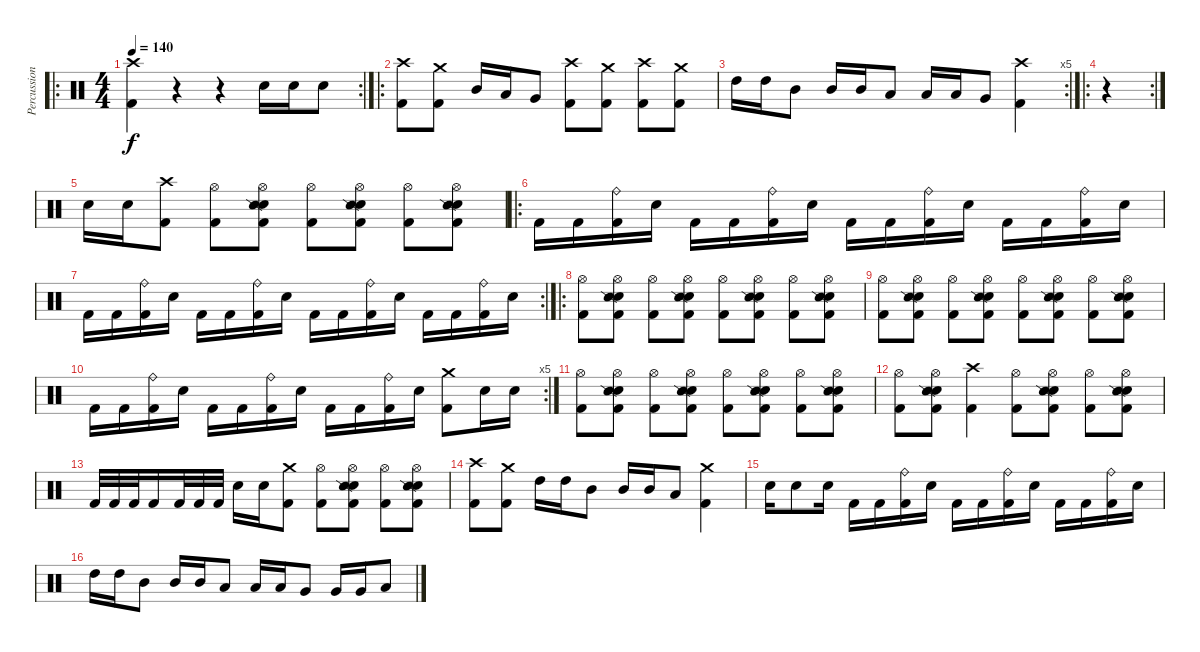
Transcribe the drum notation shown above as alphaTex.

\track ("Percussion" "Percussion") {instrument percussion}
\staff {score}
\articulation defaults
\ro
\rc 2
\ts (4 4)
\tempo 140
\clef neutral
\ks c
("Crash high (hit)" "Kick (hit) 2").4{dy f} r.4 r.4 "Electric Snare (hit)".16 "Electric Snare (hit)".16 "Electric Snare (hit)".8 |
\ro
("Crash high (hit)" "Kick (hit) 2").8 ("Crash medium (hit)" "Kick (hit) 2").8 "Mid Tom (hit)".16 "Low Tom (hit)".16 "Very Low Tom (hit)".8 ("Crash high (hit)" "Kick (hit) 2").8 ("Crash medium (hit)" "Kick (hit) 2").8 ("Crash high (hit)" "Kick (hit) 2").8 ("Crash medium (hit)" "Kick (hit) 2").8 |
\rc 5 "High Tom (hit)".16 "High Tom (hit)".16 "Mid Tom (hit)".8 "Mid Tom (hit)".16 "Mid Tom (hit)".16 "Low Tom (hit)".8 "Low Tom (hit)".16 "Low Tom (hit)".16 "Very Low Tom (hit)".8
("Crash high (hit)" "Kick (hit) 2").4 |
\ro
\rc 2
r.4 |
"Electric Snare (hit)".16 "Electric Snare (hit)".16 ("Crash high (hit)" "Kick (hit) 2").8 ("Hi-Hat (open)" "Kick (hit) 2").8 ("Hi-Hat (open)" "Electric Snare (hit)" "Snare (side stick) 2" "Kick (hit) 2").8 ("Hi-Hat (open)" "Kick (hit) 2").8 ("Hi-Hat (open)" "Electric Snare (hit)" "Snare (side stick) 2" "Kick (hit) 2").8 ("Hi-Hat (open)" "Kick (hit) 2").8 ("Hi-Hat (open)" "Electric Snare (hit)" "Snare (side stick) 2" "Kick (hit) 2").8 |
\ro "Kick (hit) 2".16 "Kick (hit) 2".16
("Ride (bell)" "Kick (hit) 2").16 "Electric Snare (hit)".16 "Kick (hit) 2".16 "Kick (hit) 2".16 ("Ride (bell)" "Kick (hit) 2").16 "Electric Snare (hit)".16 "Kick (hit) 2".16 "Kick (hit) 2".16 ("Ride (bell)" "Kick (hit) 2").16 "Electric Snare (hit)".16 "Kick (hit) 2".16 "Kick (hit) 2".16 ("Ride (bell)" "Kick (hit) 2").16 "Electric Snare (hit)".16 |
\rc 2 "Kick (hit) 2".16 "Kick (hit) 2".16
("Ride (bell)" "Kick (hit) 2").16 "Electric Snare (hit)".16 "Kick (hit) 2".16 "Kick (hit) 2".16 ("Ride (bell)" "Kick (hit) 2").16 "Electric Snare (hit)".16 "Kick (hit) 2".16 "Kick (hit) 2".16 ("Ride (bell)" "Kick (hit) 2").16 "Electric Snare (hit)".16 "Kick (hit) 2".16 "Kick (hit) 2".16 ("Ride (bell)" "Kick (hit) 2").16 "Electric Snare (hit)".16 |
\ro
("Hi-Hat (open)" "Kick (hit) 2").8 ("Hi-Hat (open)" "Electric Snare (hit)" "Snare (side stick) 2" "Kick (hit) 2").8 ("Hi-Hat (open)" "Kick (hit) 2").8 ("Hi-Hat (open)" "Electric Snare (hit)" "Snare (side stick) 2" "Kick (hit) 2").8 ("Hi-Hat (open)" "Kick (hit) 2").8 ("Hi-Hat (open)" "Electric Snare (hit)" "Snare (side stick) 2" "Kick (hit) 2").8 ("Hi-Hat (open)" "Kick (hit) 2").8 ("Hi-Hat (open)" "Electric Snare (hit)" "Snare (side stick) 2" "Kick (hit) 2").8 |
("Hi-Hat (open)" "Kick (hit) 2").8 ("Hi-Hat (open)" "Electric Snare (hit)" "Snare (side stick) 2" "Kick (hit) 2").8 ("Hi-Hat (open)" "Kick (hit) 2").8 ("Hi-Hat (open)" "Electric Snare (hit)" "Snare (side stick) 2" "Kick (hit) 2").8 ("Hi-Hat (open)" "Kick (hit) 2").8 ("Hi-Hat (open)" "Electric Snare (hit)" "Snare (side stick) 2" "Kick (hit) 2").8 ("Hi-Hat (open)" "Kick (hit) 2").8 ("Hi-Hat (open)" "Electric Snare (hit)" "Snare (side stick) 2" "Kick (hit) 2").8 |
\rc 5 "Kick (hit) 2".16 "Kick (hit) 2".16
("Ride (bell)" "Kick (hit) 2").16 "Electric Snare (hit)".16 "Kick (hit) 2".16 "Kick (hit) 2".16 ("Ride (bell)" "Kick (hit) 2").16 "Electric Snare (hit)".16 "Kick (hit) 2".16 "Kick (hit) 2".16 ("Ride (bell)" "Kick (hit) 2").16 "Electric Snare (hit)".16 ("Crash medium (hit)" "Kick (hit) 2").8 "Electric Snare (hit)".16 "Electric Snare (hit)".16 |
("Hi-Hat (open)" "Kick (hit) 2").8 ("Hi-Hat (open)" "Electric Snare (hit)" "Snare (side stick) 2" "Kick (hit) 2").8 ("Hi-Hat (open)" "Kick (hit) 2").8 ("Hi-Hat (open)" "Electric Snare (hit)" "Snare (side stick) 2" "Kick (hit) 2").8 ("Hi-Hat (open)" "Kick (hit) 2").8 ("Hi-Hat (open)" "Electric Snare (hit)" "Snare (side stick) 2" "Kick (hit) 2").8 ("Hi-Hat (open)" "Kick (hit) 2").8 ("Hi-Hat (open)" "Electric Snare (hit)" "Snare (side stick) 2" "Kick (hit) 2").8 |
("Hi-Hat (open)" "Kick (hit) 2").8 ("Hi-Hat (open)" "Electric Snare (hit)" "Snare (side stick) 2" "Kick (hit) 2").8 ("Crash high (hit)" "Kick (hit) 2").4 ("Hi-Hat (open)" "Kick (hit) 2").8 ("Hi-Hat (open)" "Electric Snare (hit)" "Snare (side stick) 2" "Kick (hit) 2").8 ("Hi-Hat (open)" "Kick (hit) 2").8 ("Hi-Hat (open)" "Electric Snare (hit)" "Snare (side stick) 2" "Kick (hit) 2").8 |
"Kick (hit) 2".32 "Kick (hit) 2".32 "Kick (hit) 2".32 "Kick (hit) 2".16 "Kick (hit) 2".32 "Kick (hit) 2".32 "Kick (hit) 2".32 "Electric Snare (hit)".16 "Electric Snare (hit)".16 ("Crash medium (hit)" "Kick (hit) 2").8 ("Hi-Hat (open)" "Kick (hit) 2").8 ("Hi-Hat (open)" "Electric Snare (hit)" "Snare (side stick) 2" "Kick (hit) 2").8 ("Hi-Hat (open)" "Kick (hit) 2").8 ("Hi-Hat (open)" "Electric Snare (hit)" "Snare (side stick) 2" "Kick (hit) 2").8 |
("Crash high (hit)" "Kick (hit) 2").8 ("Crash medium (hit)" "Kick (hit) 2").8 "High Tom (hit)".16 "High Tom (hit)".16 "Mid Tom (hit)".8 "Mid Tom (hit)".16 "Mid Tom (hit)".16 "Low Tom (hit)".8 ("Crash medium (hit)" "Kick (hit) 2").4 |
"Electric Snare (hit)".16 "Electric Snare (hit)".8 "Electric Snare (hit)".16 "Kick (hit) 2".16 "Kick (hit) 2".16 ("Ride (bell)" "Kick (hit) 2").16 "Electric Snare (hit)".16 "Kick (hit) 2".16 "Kick (hit) 2".16 ("Ride (bell)" "Kick (hit) 2").16 "Electric Snare (hit)".16 "Kick (hit) 2".16 "Kick (hit) 2".16 ("Ride (bell)" "Kick (hit) 2").16 "Electric Snare (hit)".16 |
"High Tom (hit)".16 "High Tom (hit)".16 "Mid Tom (hit)".8 "Mid Tom (hit)".16 "Mid Tom (hit)".16 "Low Tom (hit)".8 "Low Tom (hit)".16 "Low Tom (hit)".16 "Very Low Tom (hit)".8 "Very Low Tom (hit)".16 "Very Low Tom (hit)".16 "Low Floor Tom (hit)".8
